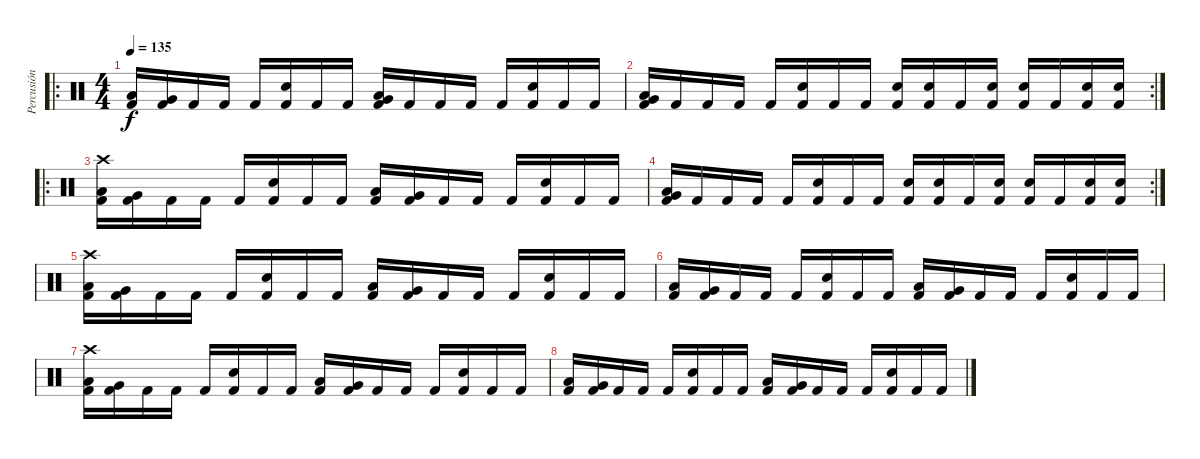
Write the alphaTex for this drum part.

\track ("Percusión" "Percusión") {instrument percussion}
\staff {score}
\articulation defaults
\ro
\ts (4 4)
\tempo 135
\clef neutral
\ks c
("Low Floor Tom (hit)" "Kick (hit) 2").16{dy f} ("Very Low Tom (hit)" "Kick (hit) 2").16 "Kick (hit) 2".16 "Kick (hit) 2".16 "Kick (hit) 2".16 ("Electric Snare (hit)" "Kick (hit) 2").16 "Kick (hit) 2".16 "Kick (hit) 2".16 ("Low Floor Tom (hit)" "Very Low Tom (hit)" "Kick (hit) 2").16 "Kick (hit) 2".16 "Kick (hit) 2".16 "Kick (hit) 2".16 "Kick (hit) 2".16 ("Electric Snare (hit)" "Kick (hit) 2").16 "Kick (hit) 2".16 "Kick (hit) 2".16 |
\rc 2
("Low Floor Tom (hit)" "Very Low Tom (hit)" "Kick (hit) 2").16 "Kick (hit) 2".16 "Kick (hit) 2".16 "Kick (hit) 2".16 "Kick (hit) 2".16 ("Electric Snare (hit)" "Kick (hit) 2").16 "Kick (hit) 2".16 "Kick (hit) 2".16 ("Electric Snare (hit)" "Kick (hit) 2").16 ("Electric Snare (hit)" "Kick (hit) 2").16 "Kick (hit) 2".16 ("Electric Snare (hit)" "Kick (hit) 2").16 ("Electric Snare (hit)" "Kick (hit) 2").16 "Kick (hit) 2".16 ("Electric Snare (hit)" "Kick (hit) 2").16 ("Electric Snare (hit)" "Kick (hit) 2").16 |
\ro
("Crash high (hit)" "Low Floor Tom (hit)" "Kick (hit) 2").16 ("Very Low Tom (hit)" "Kick (hit) 2").16 "Kick (hit) 2".16 "Kick (hit) 2".16 "Kick (hit) 2".16 ("Electric Snare (hit)" "Kick (hit) 2").16 "Kick (hit) 2".16 "Kick (hit) 2".16 ("Low Floor Tom (hit)" "Kick (hit) 2").16 ("Very Low Tom (hit)" "Kick (hit) 2").16 "Kick (hit) 2".16 "Kick (hit) 2".16 "Kick (hit) 2".16 ("Electric Snare (hit)" "Kick (hit) 2").16 "Kick (hit) 2".16 "Kick (hit) 2".16 |
\rc 2
("Low Floor Tom (hit)" "Very Low Tom (hit)" "Kick (hit) 2").16 "Kick (hit) 2".16 "Kick (hit) 2".16 "Kick (hit) 2".16 "Kick (hit) 2".16 ("Electric Snare (hit)" "Kick (hit) 2").16 "Kick (hit) 2".16 "Kick (hit) 2".16 ("Electric Snare (hit)" "Kick (hit) 2").16 ("Electric Snare (hit)" "Kick (hit) 2").16 "Kick (hit) 2".16 ("Electric Snare (hit)" "Kick (hit) 2").16 ("Electric Snare (hit)" "Kick (hit) 2").16 "Kick (hit) 2".16 ("Electric Snare (hit)" "Kick (hit) 2").16 ("Electric Snare (hit)" "Kick (hit) 2").16 |
("Crash high (hit)" "Low Floor Tom (hit)" "Kick (hit) 2").16 ("Very Low Tom (hit)" "Kick (hit) 2").16 "Kick (hit) 2".16 "Kick (hit) 2".16 "Kick (hit) 2".16 ("Electric Snare (hit)" "Kick (hit) 2").16 "Kick (hit) 2".16 "Kick (hit) 2".16 ("Low Floor Tom (hit)" "Kick (hit) 2").16 ("Very Low Tom (hit)" "Kick (hit) 2").16 "Kick (hit) 2".16 "Kick (hit) 2".16 "Kick (hit) 2".16 ("Electric Snare (hit)" "Kick (hit) 2").16 "Kick (hit) 2".16 "Kick (hit) 2".16 |
("Low Floor Tom (hit)" "Kick (hit) 2").16 ("Very Low Tom (hit)" "Kick (hit) 2").16 "Kick (hit) 2".16 "Kick (hit) 2".16 "Kick (hit) 2".16 ("Electric Snare (hit)" "Kick (hit) 2").16 "Kick (hit) 2".16 "Kick (hit) 2".16 ("Low Floor Tom (hit)" "Kick (hit) 2").16 ("Very Low Tom (hit)" "Kick (hit) 2").16 "Kick (hit) 2".16 "Kick (hit) 2".16 "Kick (hit) 2".16 ("Electric Snare (hit)" "Kick (hit) 2").16 "Kick (hit) 2".16 "Kick (hit) 2".16 |
("Crash high (hit)" "Low Floor Tom (hit)" "Kick (hit) 2").16 ("Very Low Tom (hit)" "Kick (hit) 2").16 "Kick (hit) 2".16 "Kick (hit) 2".16 "Kick (hit) 2".16 ("Electric Snare (hit)" "Kick (hit) 2").16 "Kick (hit) 2".16 "Kick (hit) 2".16 ("Low Floor Tom (hit)" "Kick (hit) 2").16 ("Very Low Tom (hit)" "Kick (hit) 2").16 "Kick (hit) 2".16 "Kick (hit) 2".16 "Kick (hit) 2".16 ("Electric Snare (hit)" "Kick (hit) 2").16 "Kick (hit) 2".16 "Kick (hit) 2".16 |
("Low Floor Tom (hit)" "Kick (hit) 2").16 ("Very Low Tom (hit)" "Kick (hit) 2").16 "Kick (hit) 2".16 "Kick (hit) 2".16 "Kick (hit) 2".16 ("Electric Snare (hit)" "Kick (hit) 2").16 "Kick (hit) 2".16 "Kick (hit) 2".16 ("Low Floor Tom (hit)" "Kick (hit) 2").16 ("Very Low Tom (hit)" "Kick (hit) 2").16 "Kick (hit) 2".16 "Kick (hit) 2".16 "Kick (hit) 2".16 ("Electric Snare (hit)" "Kick (hit) 2").16 "Kick (hit) 2".16 "Kick (hit) 2".16
